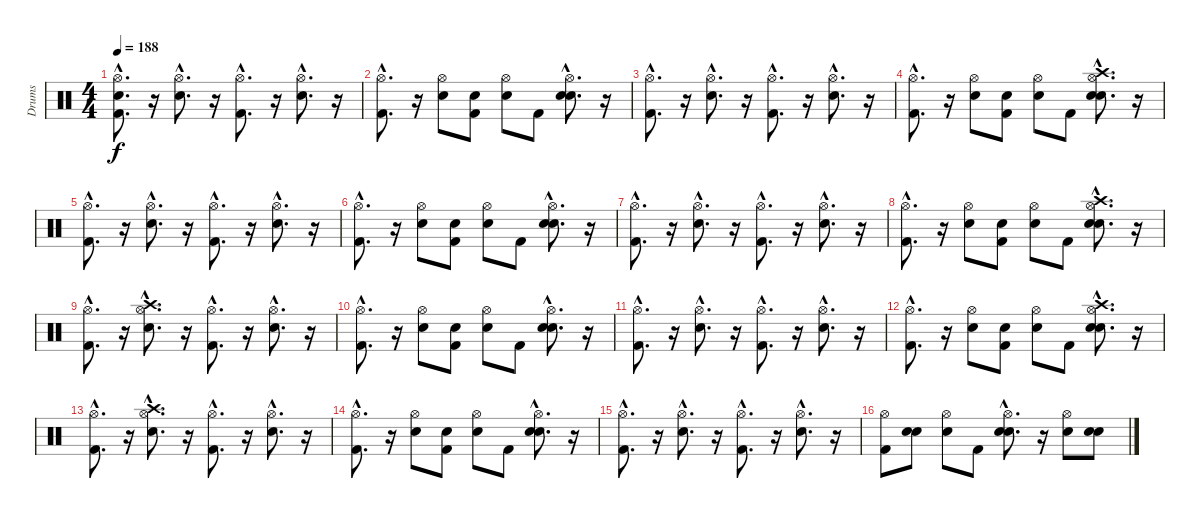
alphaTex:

\track ("Drums" "Drums") {instrument percussion}
\staff {score}
\articulation defaults
\ts (4 4)
\tempo 188
\clef neutral
\ks c
("Snare (hit)"{hac} "Kick (hit) 2"{hac} "Hi-Hat (open)"{hac}).8{d dy f} r.16 ("Snare (hit) 2"{hac} "Hi-Hat (open)"{hac}).8{d} r.16 ("Kick (hit) 2"{hac} "Hi-Hat (open)"{hac}).8{d} r.16 ("Snare (hit) 2"{hac} "Hi-Hat (open)"{hac}).8{d} r.16 |
("Kick (hit) 2"{hac} "Hi-Hat (open)"{hac}).8{d} r.16 ("Snare (hit) 2" "Hi-Hat (open)").8 ("Snare (hit)" "Kick (hit) 2").8 ("Snare (hit)" "Hi-Hat (open)").8 "Kick (hit) 2".8 ("Snare (hit)"{hac} "Snare (hit) 2"{hac} "Hi-Hat (open)"{hac}).8{d} r.16 |
("Kick (hit) 2"{hac} "Hi-Hat (open)"{hac}).8{d} r.16 ("Snare (hit) 2"{hac} "Hi-Hat (open)"{hac}).8{d} r.16 ("Kick (hit) 2"{hac} "Hi-Hat (open)"{hac}).8{d} r.16 ("Snare (hit) 2"{hac} "Hi-Hat (open)"{hac}).8{d} r.16 |
("Kick (hit) 2"{hac} "Hi-Hat (open)"{hac}).8{d} r.16 ("Snare (hit) 2" "Hi-Hat (open)").8 ("Snare (hit)" "Kick (hit) 2").8 ("Snare (hit)" "Hi-Hat (open)").8 "Kick (hit) 2".8 ("Snare (hit)"{hac} "Snare (hit) 2"{hac} "Hi-Hat (open)"{hac} "Crash high (hit)"{hac}).8{d} r.16 |
("Kick (hit) 2"{hac} "Hi-Hat (open)"{hac}).8{d} r.16 ("Snare (hit) 2"{hac} "Hi-Hat (open)"{hac}).8{d} r.16 ("Kick (hit) 2"{hac} "Hi-Hat (open)"{hac}).8{d} r.16 ("Snare (hit) 2"{hac} "Hi-Hat (open)"{hac}).8{d} r.16 |
("Kick (hit) 2"{hac} "Hi-Hat (open)"{hac}).8{d} r.16 ("Snare (hit) 2" "Hi-Hat (open)").8 ("Snare (hit)" "Kick (hit) 2").8 ("Snare (hit)" "Hi-Hat (open)").8 "Kick (hit) 2".8 ("Snare (hit)"{hac} "Snare (hit) 2"{hac} "Hi-Hat (open)"{hac}).8{d} r.16 |
("Kick (hit) 2"{hac} "Hi-Hat (open)"{hac}).8{d} r.16 ("Snare (hit) 2"{hac} "Hi-Hat (open)"{hac}).8{d} r.16 ("Kick (hit) 2"{hac} "Hi-Hat (open)"{hac}).8{d} r.16 ("Snare (hit) 2"{hac} "Hi-Hat (open)"{hac}).8{d} r.16 |
("Kick (hit) 2"{hac} "Hi-Hat (open)"{hac}).8{d} r.16 ("Snare (hit) 2" "Hi-Hat (open)").8 ("Snare (hit)" "Kick (hit) 2").8 ("Snare (hit)" "Hi-Hat (open)").8 "Kick (hit) 2".8 ("Snare (hit)"{hac} "Snare (hit) 2"{hac} "Hi-Hat (open)"{hac} "Crash high (hit)"{hac}).8{d} r.16 |
("Kick (hit) 2"{hac} "Hi-Hat (open)"{hac}).8{d} r.16 ("Snare (hit) 2"{hac} "Hi-Hat (open)"{hac} "Crash high (hit)"{hac}).8{d} r.16 ("Kick (hit) 2"{hac} "Hi-Hat (open)"{hac}).8{d} r.16 ("Snare (hit) 2"{hac} "Hi-Hat (open)"{hac}).8{d} r.16 |
("Kick (hit) 2"{hac} "Hi-Hat (open)"{hac}).8{d} r.16 ("Snare (hit) 2" "Hi-Hat (open)").8 ("Snare (hit)" "Kick (hit) 2").8 ("Snare (hit)" "Hi-Hat (open)").8 "Kick (hit) 2".8 ("Snare (hit)"{hac} "Snare (hit) 2"{hac} "Hi-Hat (open)"{hac}).8{d} r.16 |
("Kick (hit) 2"{hac} "Hi-Hat (open)"{hac}).8{d} r.16 ("Snare (hit) 2"{hac} "Hi-Hat (open)"{hac}).8{d} r.16 ("Kick (hit) 2"{hac} "Hi-Hat (open)"{hac}).8{d} r.16 ("Snare (hit) 2"{hac} "Hi-Hat (open)"{hac}).8{d} r.16 |
("Kick (hit) 2"{hac} "Hi-Hat (open)"{hac}).8{d} r.16 ("Snare (hit) 2" "Hi-Hat (open)").8 ("Snare (hit)" "Kick (hit) 2").8 ("Snare (hit)" "Hi-Hat (open)").8 "Kick (hit) 2".8 ("Snare (hit)"{hac} "Snare (hit) 2"{hac} "Hi-Hat (open)"{hac} "Crash high (hit)"{hac}).8{d} r.16 |
("Kick (hit) 2"{hac} "Hi-Hat (open)"{hac}).8{d} r.16 ("Snare (hit) 2"{hac} "Hi-Hat (open)"{hac} "Crash high (hit)"{hac}).8{d} r.16 ("Kick (hit) 2"{hac} "Hi-Hat (open)"{hac}).8{d} r.16 ("Snare (hit) 2"{hac} "Hi-Hat (open)"{hac}).8{d} r.16 |
("Kick (hit) 2"{hac} "Hi-Hat (open)"{hac}).8{d} r.16 ("Snare (hit) 2" "Hi-Hat (open)").8 ("Snare (hit)" "Kick (hit) 2").8 ("Snare (hit)" "Hi-Hat (open)").8 "Kick (hit) 2".8 ("Snare (hit)"{hac} "Snare (hit) 2"{hac} "Hi-Hat (open)"{hac}).8{d} r.16 |
("Kick (hit) 2"{hac} "Hi-Hat (open)"{hac}).8{d} r.16 ("Snare (hit) 2"{hac} "Hi-Hat (open)"{hac}).8{d} r.16 ("Kick (hit) 2"{hac} "Hi-Hat (open)"{hac}).8{d} r.16 ("Snare (hit) 2"{hac} "Hi-Hat (open)"{hac}).8{d} r.16 |
("Kick (hit) 2" "Hi-Hat (open)").8 ("Snare (hit)" "Snare (hit) 2").8 ("Snare (hit)" "Hi-Hat (open)").8 "Kick (hit) 2".8 ("Snare (hit)"{hac} "Snare (hit) 2"{hac} "Hi-Hat (open)"{hac}).8{d} r.16 ("Snare (hit) 2" "Hi-Hat (open)").8 ("Snare (hit)" "Snare (hit) 2").8
